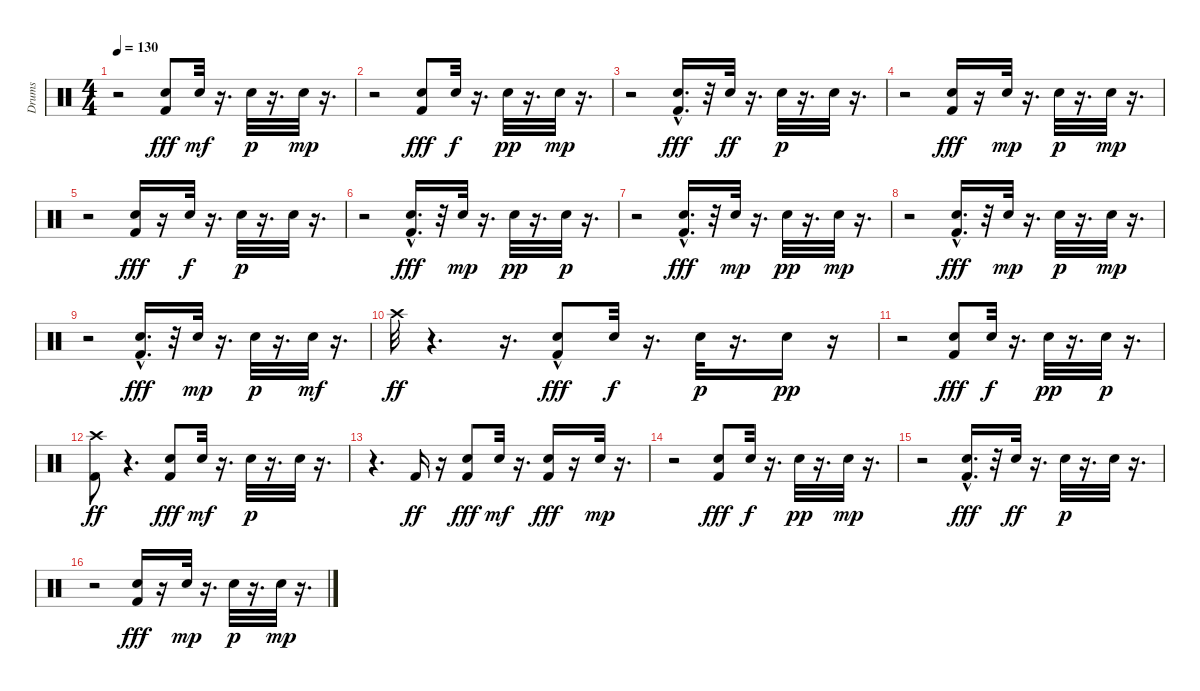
\track ("Drums" "Drums") {instrument percussion}
\staff {score}
\articulation defaults
\ts (4 4)
\tempo 130
\clef neutral
\ks c
r.2{dy p} ("Hand Clap (hit)" "Kick (hit) 2").8{dy fff} "Hand Clap (hit)".32{dy mf} r.16{d} "Hand Clap (hit)".32{dy p} r.16{d} "Hand Clap (hit)".32{dy mp} r.16{d} |
r.2 ("Hand Clap (hit)" "Kick (hit) 2").8{dy fff} "Hand Clap (hit)".32{dy f} r.16{d} "Hand Clap (hit)".32{dy pp} r.16{d} "Hand Clap (hit)".32{dy mp} r.16{d} |
r.2 ("Hand Clap (hit)" "Kick (hit) 2"{hac}).16{d dy fff} r.32 "Hand Clap (hit)".32{dy ff} r.16{d} "Hand Clap (hit)".32{dy p} r.16{d} "Hand Clap (hit)".32 r.16{d} |
r.2 ("Hand Clap (hit)" "Kick (hit) 2").16{dy fff} r.16 "Hand Clap (hit)".32{dy mp} r.16{d} "Hand Clap (hit)".32{dy p} r.16{d} "Hand Clap (hit)".32{dy mp} r.16{d} |
r.2 ("Hand Clap (hit)" "Kick (hit) 2").16{dy fff} r.16 "Hand Clap (hit)".32{dy f} r.16{d} "Hand Clap (hit)".32{dy p} r.16{d} "Hand Clap (hit)".32 r.16{d} |
r.2 ("Kick (hit) 2"{hac} "Hand Clap (hit)").16{d dy fff} r.32 "Hand Clap (hit)".32{dy mp} r.16{d} "Hand Clap (hit)".32{dy pp} r.16{d} "Hand Clap (hit)".32{dy p} r.16{d} |
r.2 ("Hand Clap (hit)" "Kick (hit) 2"{hac}).16{d dy fff} r.32 "Hand Clap (hit)".32{dy mp} r.16{d} "Hand Clap (hit)".32{dy pp} r.16{d} "Hand Clap (hit)".32{dy mp} r.16{d} |
r.2 ("Hand Clap (hit)" "Kick (hit) 2"{hac}).16{d dy fff} r.32 "Hand Clap (hit)".32{dy mp} r.16{d} "Hand Clap (hit)".32{dy p} r.16{d} "Hand Clap (hit)".32{dy mp} r.16{d} |
r.2 ("Kick (hit) 2"{hac} "Hand Clap (hit)").16{d dy fff} r.32 "Hand Clap (hit)".32{dy mp} r.16{d} "Hand Clap (hit)".32{dy p} r.16{d} "Hand Clap (hit)".32{dy mf} r.16{d} |
"Crash high (hit)".32{dy ff} r.4{d} r.16{d} ("Hand Clap (hit)" "Kick (hit) 2"{hac}).8{dy fff} "Hand Clap (hit)".32{dy f} r.16{d} "Hand Clap (hit)".32{dy p} r.16{d} "Hand Clap (hit)".16{dy pp} r.16 |
r.2 ("Hand Clap (hit)" "Kick (hit) 2").8{dy fff} "Hand Clap (hit)".32{dy f} r.16{d} "Hand Clap (hit)".32{dy pp} r.16{d} "Hand Clap (hit)".32{dy p} r.16{d} |
("Crash high (hit)" "Kick (hit) 2").8{dy ff} r.4{d} ("Hand Clap (hit)" "Kick (hit) 2").8{dy fff} "Hand Clap (hit)".32{dy mf} r.16{d} "Hand Clap (hit)".32{dy p} r.16{d} "Hand Clap (hit)".32 r.16{d} |
r.4{d} "Kick (hit) 2".16{dy ff} r.16 ("Hand Clap (hit)" "Kick (hit) 2").8{dy fff} "Hand Clap (hit)".32{dy mf} r.16{d} ("Hand Clap (hit)" "Kick (hit) 2").16{dy fff} r.16 "Hand Clap (hit)".32{dy mp} r.16{d} |
r.2 ("Hand Clap (hit)" "Kick (hit) 2").8{dy fff} "Hand Clap (hit)".32{dy f} r.16{d} "Hand Clap (hit)".32{dy pp} r.16{d} "Hand Clap (hit)".32{dy mp} r.16{d} |
r.2 ("Hand Clap (hit)" "Kick (hit) 2"{hac}).16{d dy fff} r.32 "Hand Clap (hit)".32{dy ff} r.16{d} "Hand Clap (hit)".32{dy p} r.16{d} "Hand Clap (hit)".32 r.16{d} |
r.2 ("Hand Clap (hit)" "Kick (hit) 2").16{dy fff} r.16 "Hand Clap (hit)".32{dy mp} r.16{d} "Hand Clap (hit)".32{dy p} r.16{d} "Hand Clap (hit)".32{dy mp} r.16{d}
